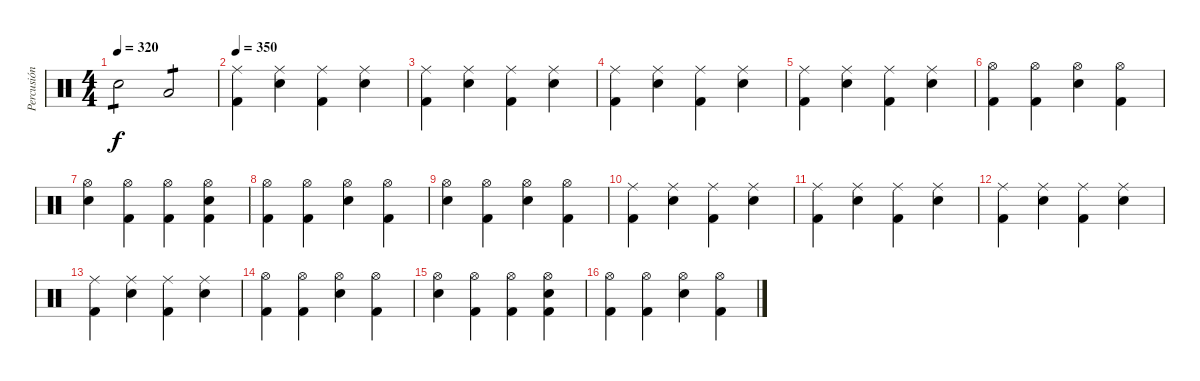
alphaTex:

\track ("Percusión" "Percusión") {instrument percussion}
\staff {score}
\articulation defaults
\ts (4 4)
\tempo 320
\clef neutral
\ks c "Electric Snare (hit)".2{tp 1 dy f} "Low Tom (hit)".2{tp 1}
|
\tempo 350
("Ride (middle)" "Kick (hit) 2").4 ("Ride (middle)" "Electric Snare (hit)").4 ("Ride (middle)" "Kick (hit) 2").4 ("Ride (middle)" "Electric Snare (hit)").4 |
("Ride (middle)" "Kick (hit) 2").4 ("Ride (middle)" "Electric Snare (hit)").4 ("Ride (middle)" "Kick (hit) 2").4 ("Ride (middle)" "Electric Snare (hit)").4 |
("Ride (middle)" "Kick (hit) 2").4 ("Ride (middle)" "Electric Snare (hit)").4 ("Ride (middle)" "Kick (hit) 2").4 ("Ride (middle)" "Electric Snare (hit)").4 |
("Ride (middle)" "Kick (hit) 2").4 ("Ride (middle)" "Electric Snare (hit)").4 ("Ride (middle)" "Kick (hit) 2").4 ("Ride (middle)" "Electric Snare (hit)").4 |
("Hi-Hat (open)" "Kick (hit) 2").4 ("Hi-Hat (open)" "Kick (hit) 2").4 ("Hi-Hat (open)" "Electric Snare (hit)").4 ("Hi-Hat (open)" "Kick (hit) 2").4 |
("Hi-Hat (open)" "Electric Snare (hit)").4 ("Hi-Hat (open)" "Kick (hit) 2").4 ("Hi-Hat (open)" "Kick (hit) 2").4 ("Hi-Hat (open)" "Electric Snare (hit)" "Kick (hit) 2").4 |
("Hi-Hat (open)" "Kick (hit) 2").4 ("Hi-Hat (open)" "Kick (hit) 2").4 ("Hi-Hat (open)" "Electric Snare (hit)").4 ("Hi-Hat (open)" "Kick (hit) 2").4 |
("Hi-Hat (open)" "Electric Snare (hit)").4 ("Hi-Hat (open)" "Kick (hit) 2").4 ("Hi-Hat (open)" "Electric Snare (hit)").4 ("Hi-Hat (open)" "Kick (hit) 2").4 |
("Ride (middle)" "Kick (hit) 2").4 ("Ride (middle)" "Electric Snare (hit)").4 ("Ride (middle)" "Kick (hit) 2").4 ("Ride (middle)" "Electric Snare (hit)").4 |
("Ride (middle)" "Kick (hit) 2").4 ("Ride (middle)" "Electric Snare (hit)").4 ("Ride (middle)" "Kick (hit) 2").4 ("Ride (middle)" "Electric Snare (hit)").4 |
("Ride (middle)" "Kick (hit) 2").4 ("Ride (middle)" "Electric Snare (hit)").4 ("Ride (middle)" "Kick (hit) 2").4 ("Ride (middle)" "Electric Snare (hit)").4 |
("Ride (middle)" "Kick (hit) 2").4 ("Ride (middle)" "Electric Snare (hit)").4 ("Ride (middle)" "Kick (hit) 2").4 ("Ride (middle)" "Electric Snare (hit)").4 |
("Hi-Hat (open)" "Kick (hit) 2").4 ("Hi-Hat (open)" "Kick (hit) 2").4 ("Hi-Hat (open)" "Electric Snare (hit)").4 ("Hi-Hat (open)" "Kick (hit) 2").4 |
("Hi-Hat (open)" "Electric Snare (hit)").4 ("Hi-Hat (open)" "Kick (hit) 2").4 ("Hi-Hat (open)" "Kick (hit) 2").4 ("Hi-Hat (open)" "Electric Snare (hit)" "Kick (hit) 2").4 |
("Hi-Hat (open)" "Kick (hit) 2").4 ("Hi-Hat (open)" "Kick (hit) 2").4 ("Hi-Hat (open)" "Electric Snare (hit)").4 ("Hi-Hat (open)" "Kick (hit) 2").4
